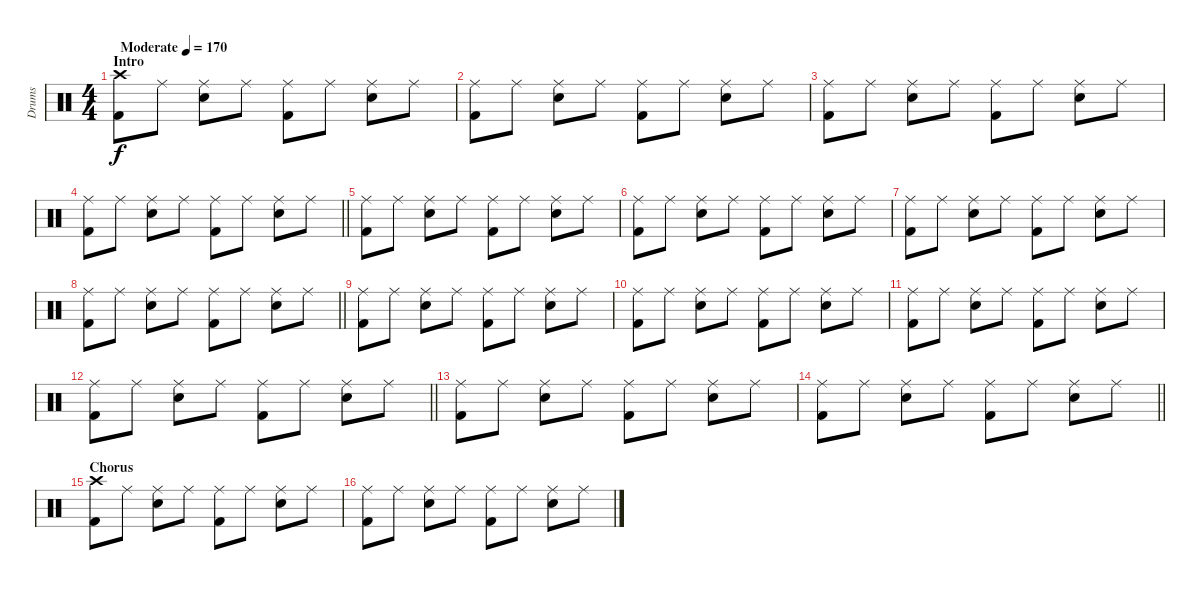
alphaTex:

\track ("Drums" "Drums") {instrument percussion}
\staff {score}
\articulation defaults
\ts (4 4)
\section ("" "Intro")
\tempo (170 "Moderate")
\clef neutral
\ks c
("Crash high (hit)" "Kick (hit) 2").8{dy f} "Ride (middle)".8 ("Ride (middle)" "Snare (hit) 2").8 "Ride (middle)".8 ("Ride (middle)" "Kick (hit) 2").8 "Ride (middle)".8 ("Ride (middle)" "Snare (hit) 2").8 "Ride (middle)".8 |
("Ride (middle)" "Kick (hit) 2").8 "Ride (middle)".8 ("Ride (middle)" "Snare (hit) 2").8 "Ride (middle)".8 ("Ride (middle)" "Kick (hit) 2").8 "Ride (middle)".8 ("Ride (middle)" "Snare (hit) 2").8 "Ride (middle)".8 |
("Ride (middle)" "Kick (hit) 2").8 "Ride (middle)".8 ("Ride (middle)" "Snare (hit) 2").8 "Ride (middle)".8 ("Ride (middle)" "Kick (hit) 2").8 "Ride (middle)".8 ("Ride (middle)" "Snare (hit) 2").8 "Ride (middle)".8 |
\barLineRight lightlight
("Ride (middle)" "Kick (hit) 2").8 "Ride (middle)".8 ("Ride (middle)" "Snare (hit) 2").8 "Ride (middle)".8 ("Ride (middle)" "Kick (hit) 2").8 "Ride (middle)".8 ("Ride (middle)" "Snare (hit) 2").8 "Ride (middle)".8 |
("Ride (middle)" "Kick (hit) 2").8 "Ride (middle)".8 ("Ride (middle)" "Snare (hit) 2").8 "Ride (middle)".8 ("Ride (middle)" "Kick (hit) 2").8 "Ride (middle)".8 ("Ride (middle)" "Snare (hit) 2").8 "Ride (middle)".8 |
("Ride (middle)" "Kick (hit) 2").8 "Ride (middle)".8 ("Ride (middle)" "Snare (hit) 2").8 "Ride (middle)".8 ("Ride (middle)" "Kick (hit) 2").8 "Ride (middle)".8 ("Ride (middle)" "Snare (hit) 2").8 "Ride (middle)".8 |
("Ride (middle)" "Kick (hit) 2").8 "Ride (middle)".8 ("Ride (middle)" "Snare (hit) 2").8 "Ride (middle)".8 ("Ride (middle)" "Kick (hit) 2").8 "Ride (middle)".8 ("Ride (middle)" "Snare (hit) 2").8 "Ride (middle)".8 |
\barLineRight lightlight
("Ride (middle)" "Kick (hit) 2").8 "Ride (middle)".8 ("Ride (middle)" "Snare (hit) 2").8 "Ride (middle)".8 ("Ride (middle)" "Kick (hit) 2").8 "Ride (middle)".8 ("Ride (middle)" "Snare (hit) 2").8 "Ride (middle)".8 |
("Ride (middle)" "Kick (hit) 2").8 "Ride (middle)".8 ("Ride (middle)" "Snare (hit) 2").8 "Ride (middle)".8 ("Ride (middle)" "Kick (hit) 2").8 "Ride (middle)".8 ("Ride (middle)" "Snare (hit) 2").8 "Ride (middle)".8 |
("Ride (middle)" "Kick (hit) 2").8 "Ride (middle)".8 ("Ride (middle)" "Snare (hit) 2").8 "Ride (middle)".8 ("Ride (middle)" "Kick (hit) 2").8 "Ride (middle)".8 ("Ride (middle)" "Snare (hit) 2").8 "Ride (middle)".8 |
("Ride (middle)" "Kick (hit) 2").8 "Ride (middle)".8 ("Ride (middle)" "Snare (hit) 2").8 "Ride (middle)".8 ("Ride (middle)" "Kick (hit) 2").8 "Ride (middle)".8 ("Ride (middle)" "Snare (hit) 2").8 "Ride (middle)".8 |
\barLineRight lightlight
("Ride (middle)" "Kick (hit) 2").8 "Ride (middle)".8 ("Ride (middle)" "Snare (hit) 2").8 "Ride (middle)".8 ("Ride (middle)" "Kick (hit) 2").8 "Ride (middle)".8 ("Ride (middle)" "Snare (hit) 2").8 "Ride (middle)".8 |
("Ride (middle)" "Kick (hit) 2").8 "Ride (middle)".8 ("Ride (middle)" "Snare (hit) 2").8 "Ride (middle)".8 ("Ride (middle)" "Kick (hit) 2").8 "Ride (middle)".8 ("Ride (middle)" "Snare (hit) 2").8 "Ride (middle)".8 |
\barLineRight lightlight
("Ride (middle)" "Kick (hit) 2").8 "Ride (middle)".8 ("Ride (middle)" "Snare (hit) 2").8 "Ride (middle)".8 ("Ride (middle)" "Kick (hit) 2").8 "Ride (middle)".8 ("Ride (middle)" "Snare (hit) 2").8 "Ride (middle)".8 |
\section ("" "Chorus")
("Crash high (hit)" "Kick (hit) 2").8 "Ride (middle)".8 ("Ride (middle)" "Snare (hit) 2").8 "Ride (middle)".8 ("Ride (middle)" "Kick (hit) 2").8 "Ride (middle)".8 ("Ride (middle)" "Snare (hit) 2").8 "Ride (middle)".8 |
("Ride (middle)" "Kick (hit) 2").8 "Ride (middle)".8 ("Ride (middle)" "Snare (hit) 2").8 "Ride (middle)".8 ("Ride (middle)" "Kick (hit) 2").8 "Ride (middle)".8 ("Ride (middle)" "Snare (hit) 2").8 "Ride (middle)".8
